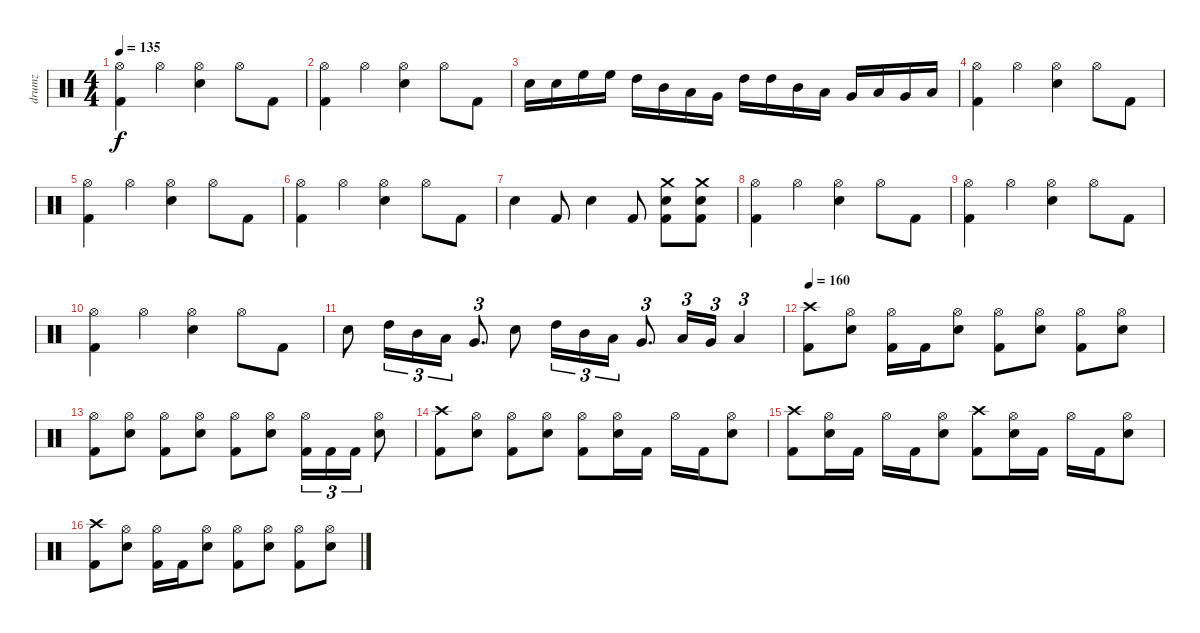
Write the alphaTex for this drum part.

\track ("drumz" "drumz") {instrument percussion}
\staff {score}
\articulation defaults
\ts (4 4)
\tempo 135
\clef neutral
\ks c
("Hi-Hat (open)" "Kick (hit) 2").4{dy f} "Hi-Hat (open)".4 ("Hi-Hat (open)" "Electric Snare (hit)").4 "Hi-Hat (open)".8 "Kick (hit) 2".8 |
("Hi-Hat (open)" "Kick (hit) 2").4 "Hi-Hat (open)".4 ("Hi-Hat (open)" "Electric Snare (hit)").4 "Hi-Hat (open)".8 "Kick (hit) 2".8 |
"Electric Snare (hit)".16 "Electric Snare (hit)".16 "High Floor Tom (hit)".16 "High Floor Tom (hit)".16 "High Tom (hit)".16 "Mid Tom (hit)".16 "Low Tom (hit)".16 "Very Low Tom (hit)".16 "High Tom (hit)".16 "High Tom (hit)".16 "Mid Tom (hit)".16 "Low Tom (hit)".16 "Very Low Tom (hit)".16 "Low Tom (hit)".16 "Very Low Tom (hit)".16 "Low Floor Tom (hit)".16 |
("Hi-Hat (open)" "Kick (hit) 2").4 "Hi-Hat (open)".4 ("Hi-Hat (open)" "Electric Snare (hit)").4 "Hi-Hat (open)".8 "Kick (hit) 2".8 |
("Hi-Hat (open)" "Kick (hit) 2").4 "Hi-Hat (open)".4 ("Hi-Hat (open)" "Electric Snare (hit)").4 "Hi-Hat (open)".8 "Kick (hit) 2".8 |
("Hi-Hat (open)" "Kick (hit) 2").4 "Hi-Hat (open)".4 ("Hi-Hat (open)" "Electric Snare (hit)").4 "Hi-Hat (open)".8 "Kick (hit) 2".8 |
"Electric Snare (hit)".4 "Kick (hit) 2".8 "Electric Snare (hit)".4 "Kick (hit) 2".8 ("Crash medium (hit)" "Electric Snare (hit)" "Kick (hit) 2").8 ("Crash medium (hit)" "Electric Snare (hit)" "Kick (hit) 2").8 |
("Hi-Hat (open)" "Kick (hit) 2").4 "Hi-Hat (open)".4 ("Hi-Hat (open)" "Electric Snare (hit)").4 "Hi-Hat (open)".8 "Kick (hit) 2".8 |
("Hi-Hat (open)" "Kick (hit) 2").4 "Hi-Hat (open)".4 ("Hi-Hat (open)" "Electric Snare (hit)").4 "Hi-Hat (open)".8 "Kick (hit) 2".8 |
("Hi-Hat (open)" "Kick (hit) 2").4 "Hi-Hat (open)".4 ("Hi-Hat (open)" "Electric Snare (hit)").4 "Hi-Hat (open)".8 "Kick (hit) 2".8 |
"Electric Snare (hit)".8 "High Tom (hit)".16{tu (3 2)} "Mid Tom (hit)".16{tu (3 2)} "Low Tom (hit)".16{tu (3 2)} "Very Low Tom (hit)".8{d tu (3 2)} "Electric Snare (hit)".8 "High Tom (hit)".16{tu (3 2)} "Mid Tom (hit)".16{tu (3 2)} "Low Tom (hit)".16{tu (3 2)} "Very Low Tom (hit)".8{d tu (3 2)} "Low Tom (hit)".16{tu (3 2)} "Very Low Tom (hit)".16{tu (3 2)} "Low Floor Tom (hit)".4{tu (3 2)} |
\tempo 160
("Crash high (hit)" "Kick (hit) 2").8 ("Hi-Hat (open)" "Electric Snare (hit)").8 ("Hi-Hat (open)" "Kick (hit) 2").16 "Kick (hit) 2".16 ("Hi-Hat (open)" "Electric Snare (hit)").8 ("Hi-Hat (open)" "Kick (hit) 2").8 ("Hi-Hat (open)" "Electric Snare (hit)").8 ("Hi-Hat (open)" "Kick (hit) 2").8 ("Hi-Hat (open)" "Electric Snare (hit)").8 |
("Hi-Hat (open)" "Kick (hit) 2").8 ("Hi-Hat (open)" "Electric Snare (hit)").8 ("Hi-Hat (open)" "Kick (hit) 2").8 ("Hi-Hat (open)" "Electric Snare (hit)").8 ("Hi-Hat (open)" "Kick (hit) 2").8 ("Hi-Hat (open)" "Electric Snare (hit)").8 ("Hi-Hat (open)" "Kick (hit) 2").16{tu (3 2)} "Kick (hit) 2".16{tu (3 2)} "Kick (hit) 2".16{tu (3 2)} ("Hi-Hat (open)" "Electric Snare (hit)").8 |
("Crash high (hit)" "Kick (hit) 2").8 ("Hi-Hat (open)" "Electric Snare (hit)").8 ("Hi-Hat (open)" "Kick (hit) 2").8 ("Hi-Hat (open)" "Electric Snare (hit)").8 ("Hi-Hat (open)" "Kick (hit) 2").8 ("Hi-Hat (open)" "Electric Snare (hit)").16 "Kick (hit) 2".16 "Hi-Hat (open)".16 "Kick (hit) 2".16 ("Hi-Hat (open)" "Electric Snare (hit)").8 |
("Crash high (hit)" "Kick (hit) 2").8 ("Hi-Hat (open)" "Electric Snare (hit)").16 "Kick (hit) 2".16 "Hi-Hat (open)".16 "Kick (hit) 2".16 ("Hi-Hat (open)" "Electric Snare (hit)").8 ("Crash high (hit)" "Kick (hit) 2").8 ("Hi-Hat (open)" "Electric Snare (hit)").16 "Kick (hit) 2".16 "Hi-Hat (open)".16 "Kick (hit) 2".16 ("Hi-Hat (open)" "Electric Snare (hit)").8 |
("Crash high (hit)" "Kick (hit) 2").8 ("Hi-Hat (open)" "Electric Snare (hit)").8 ("Hi-Hat (open)" "Kick (hit) 2").16 "Kick (hit) 2".16 ("Hi-Hat (open)" "Electric Snare (hit)").8 ("Hi-Hat (open)" "Kick (hit) 2").8 ("Hi-Hat (open)" "Electric Snare (hit)").8 ("Hi-Hat (open)" "Kick (hit) 2").8 ("Hi-Hat (open)" "Electric Snare (hit)").8
